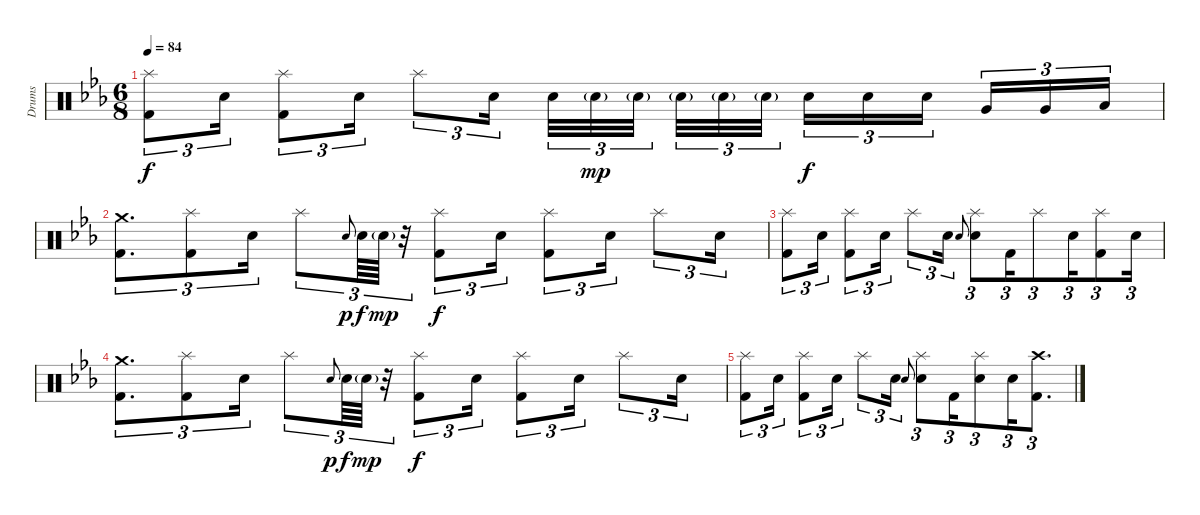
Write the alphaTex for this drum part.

\track ("Drums" "Drums") {instrument percussion}
\staff {score}
\articulation defaults
\ts (6 8)
\tempo 84
\clef neutral
\ks cminor
("Splash (hit)" "Kick (hit) 2").8{tu (3 2) dy f} "Snare (hit) 2".16{tu (3 2)} ("Splash (hit)" "Kick (hit) 2").8{tu (3 2)} "Snare (hit) 2".16{tu (3 2)} "Splash (hit)".8{tu (3 2)} "Snare (hit) 2".16{tu (3 2)} "Snare (hit) 2".32{tu (3 2)} "Snare (hit) 2"{g}.32{tu (3 2) dy mp} "Snare (hit) 2"{g}.32{tu (3 2) beam splitsecondary} "Snare (hit) 2"{g}.32{tu (3 2)} "Snare (hit) 2"{g}.32{tu (3 2)} "Snare (hit) 2"{g}.32{tu (3 2) beam splitsecondary} "Snare (hit) 2".16{tu (3 2) dy f} "Snare (hit) 2".16{tu (3 2)} "Snare (hit) 2".16{tu (3 2) beam splitsecondary} "Very Low Tom (hit)".16{tu (3 2)} "Very Low Tom (hit)".16{tu (3 2)} "Low Floor Tom (hit)".16{tu (3 2)} |
("Crash medium (hit)" "Kick (hit) 2").8{d tu (3 2)} ("Splash (hit)" "Kick (hit) 2").8{tu (3 2)} "Snare (hit) 2".16{tu (3 2)} "Splash (hit)".8{tu (3 2)} "Electric Snare (hit)".8{gr onbeat dy p} "Electric Snare (hit)".64{tu (3 2) dy f} "Electric Snare (hit)"{g}.64{tu (3 2) dy mp} r.32{tu (3 2)} ("Splash (hit)" "Kick (hit) 2").8{tu (3 2) dy f} "Snare (hit) 2".16{tu (3 2)} ("Splash (hit)" "Kick (hit) 2").8{tu (3 2)} "Snare (hit) 2".16{tu (3 2)} "Splash (hit)".8{tu (3 2)} "Snare (hit) 2".16{tu (3 2)} |
("Splash (hit)" "Kick (hit) 2").8{tu (3 2)} "Snare (hit) 2".16{tu (3 2)} ("Splash (hit)" "Kick (hit) 2").8{tu (3 2)} "Snare (hit) 2".16{tu (3 2)} "Splash (hit)".8{tu (3 2)} "Snare (hit) 2".16{tu (3 2)} "Snare (hit) 2"{h}.8{gr onbeat} ("Splash (hit)" "Snare (hit) 2").8{tu (3 2)} "Kick (hit) 2".16{tu (3 2)} "Splash (hit)".8{tu (3 2)} "Snare (hit) 2".16{tu (3 2)} ("Splash (hit)" "Kick (hit) 2").8{tu (3 2)} "Snare (hit) 2".16{tu (3 2)} |
("Crash medium (hit)" "Kick (hit) 2").8{d tu (3 2)} ("Splash (hit)" "Kick (hit) 2").8{tu (3 2)} "Snare (hit) 2".16{tu (3 2)} "Splash (hit)".8{tu (3 2)} "Electric Snare (hit)".8{gr onbeat dy p} "Electric Snare (hit)".64{tu (3 2) dy f} "Electric Snare (hit)"{g}.64{tu (3 2) dy mp} r.32{tu (3 2)} ("Splash (hit)" "Kick (hit) 2").8{tu (3 2) dy f} "Snare (hit) 2".16{tu (3 2)} ("Splash (hit)" "Kick (hit) 2").8{tu (3 2)} "Snare (hit) 2".16{tu (3 2)} "Splash (hit)".8{tu (3 2)} "Snare (hit) 2".16{tu (3 2)} |
("Splash (hit)" "Kick (hit) 2").8{tu (3 2)} "Snare (hit) 2".16{tu (3 2)} ("Splash (hit)" "Kick (hit) 2").8{tu (3 2)} "Snare (hit) 2".16{tu (3 2)} "Splash (hit)".8{tu (3 2)} "Snare (hit) 2".16{tu (3 2)} "Snare (hit) 2"{h}.8{gr onbeat} ("Splash (hit)" "Snare (hit) 2").8{tu (3 2)} "Kick (hit) 2".16{tu (3 2)} ("Splash (hit)" "Snare (hit) 2").8{tu (3 2)} "Snare (hit) 2".16{tu (3 2)} ("Crash high (hit)" "Kick (hit) 2").8{d tu (3 2)}
